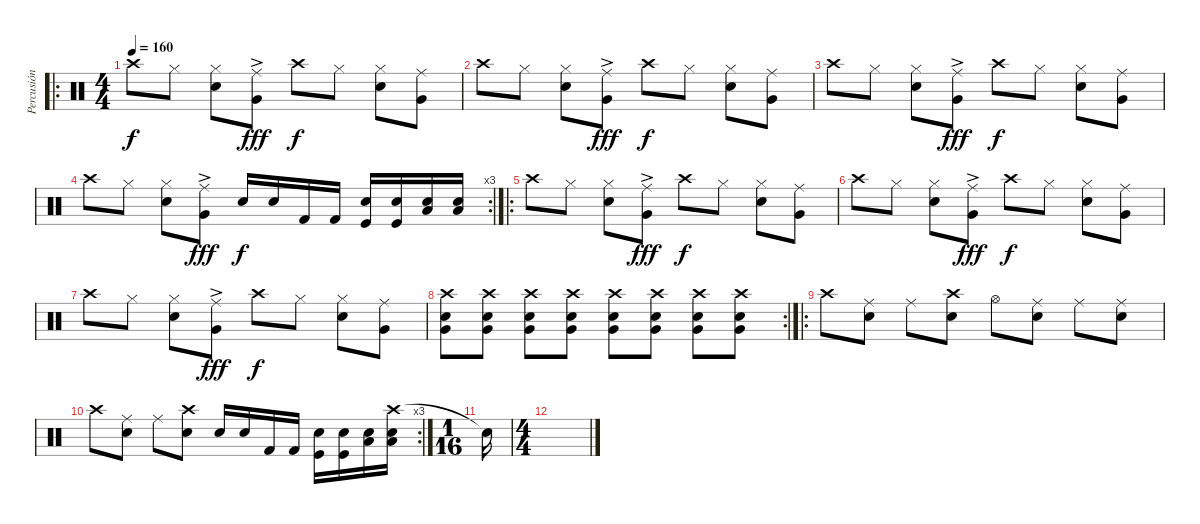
\track ("Percusión" "Percusión") {instrument percussion}
\staff {score}
\articulation defaults
\ro
\ts (4 4)
\tempo 160
\clef neutral
\ks c "Crash high (hit)".8{dy f} "Hi-Hat (closed)".8
("Hi-Hat (closed)" "Snare (hit) 2").8 ("Ride (middle)" "Very Low Tom (hit)"{ac}).8{dy fff} "Crash high (hit)".8{dy f} "Hi-Hat (closed)".8 ("Hi-Hat (closed)" "Snare (hit) 2").8 ("Ride (middle)" "Very Low Tom (hit)").8 |
"Crash high (hit)".8 "Hi-Hat (closed)".8 ("Hi-Hat (closed)" "Snare (hit) 2").8 ("Ride (middle)" "Very Low Tom (hit)"{ac}).8{dy fff} "Crash high (hit)".8{dy f} "Hi-Hat (closed)".8 ("Hi-Hat (closed)" "Snare (hit) 2").8 ("Ride (middle)" "Very Low Tom (hit)").8 |
"Crash high (hit)".8 "Hi-Hat (closed)".8 ("Hi-Hat (closed)" "Snare (hit) 2").8 ("Ride (middle)" "Very Low Tom (hit)"{ac}).8{dy fff} "Crash high (hit)".8{dy f} "Hi-Hat (closed)".8 ("Hi-Hat (closed)" "Snare (hit) 2").8 ("Ride (middle)" "Very Low Tom (hit)").8 |
\rc 3 "Crash high (hit)".8 "Hi-Hat (closed)".8
("Hi-Hat (closed)" "Snare (hit) 2").8 ("Ride (middle)" "Very Low Tom (hit)"{ac}).8{dy fff} "Snare (hit) 2".16{dy f} "Snare (hit) 2".16 "Kick (hit) 2".16 "Kick (hit) 2".16 ("Kick (hit)" "Snare (hit) 2").16 ("Kick (hit)" "Snare (hit) 2").16 ("Snare (hit) 2" "Low Floor Tom (hit)").16 ("Snare (hit) 2" "Low Floor Tom (hit)").16 |
\ro "Crash high (hit)".8 "Hi-Hat (closed)".8
("Hi-Hat (closed)" "Snare (hit) 2").8 ("Ride (middle)" "Very Low Tom (hit)"{ac}).8{dy fff} "Crash high (hit)".8{dy f} "Hi-Hat (closed)".8 ("Hi-Hat (closed)" "Snare (hit) 2").8 ("Ride (middle)" "Very Low Tom (hit)").8 |
"Crash high (hit)".8 "Hi-Hat (closed)".8 ("Hi-Hat (closed)" "Snare (hit) 2").8 ("Ride (middle)" "Very Low Tom (hit)"{ac}).8{dy fff} "Crash high (hit)".8{dy f} "Hi-Hat (closed)".8 ("Hi-Hat (closed)" "Snare (hit) 2").8 ("Ride (middle)" "Very Low Tom (hit)").8 |
"Crash high (hit)".8 "Hi-Hat (closed)".8 ("Hi-Hat (closed)" "Snare (hit) 2").8 ("Ride (middle)" "Very Low Tom (hit)"{ac}).8{dy fff} "Crash high (hit)".8{dy f} "Hi-Hat (closed)".8 ("Hi-Hat (closed)" "Snare (hit) 2").8 ("Ride (middle)" "Very Low Tom (hit)").8 |
\rc 2
("Crash high (hit)" "Snare (hit) 2" "Very Low Tom (hit)").8 ("Crash high (hit)" "Snare (hit) 2" "Very Low Tom (hit)").8 ("Crash high (hit)" "Snare (hit) 2" "Very Low Tom (hit)").8 ("Crash high (hit)" "Snare (hit) 2" "Very Low Tom (hit)").8 ("Crash high (hit)" "Snare (hit) 2" "Very Low Tom (hit)").8 ("Crash high (hit)" "Snare (hit) 2" "Very Low Tom (hit)").8 ("Crash high (hit)" "Snare (hit) 2" "Very Low Tom (hit)").8 ("Crash high (hit)" "Snare (hit) 2" "Very Low Tom (hit)").8 |
\ro "Crash high (hit)".8
("Ride (middle)" "Snare (hit) 2").8 "Ride (middle)".8 ("Crash high (hit)" "Snare (hit) 2").8 "Hi-Hat (open)".8 ("Ride (middle)" "Snare (hit) 2").8 "Ride (middle)".8 ("Ride (middle)" "Snare (hit) 2").8 |
\rc 3 "Crash high (hit)".8
("Ride (middle)" "Snare (hit) 2").8 "Ride (middle)".8 ("Crash high (hit)" "Snare (hit) 2").8 "Snare (hit) 2".16 "Snare (hit) 2".16 "Kick (hit) 2".16 "Kick (hit) 2".16 ("Kick (hit)" "Snare (hit) 2").16 ("Kick (hit)" "Snare (hit) 2").16 ("Snare (hit) 2" "Low Floor Tom (hit)").16 ("Crash high (hit)" "Snare (hit) 2" "Low Floor Tom (hit)").16 |
\ts (1 16)
"Snare (hit)"{t}.16 |
\ts (4 4)
